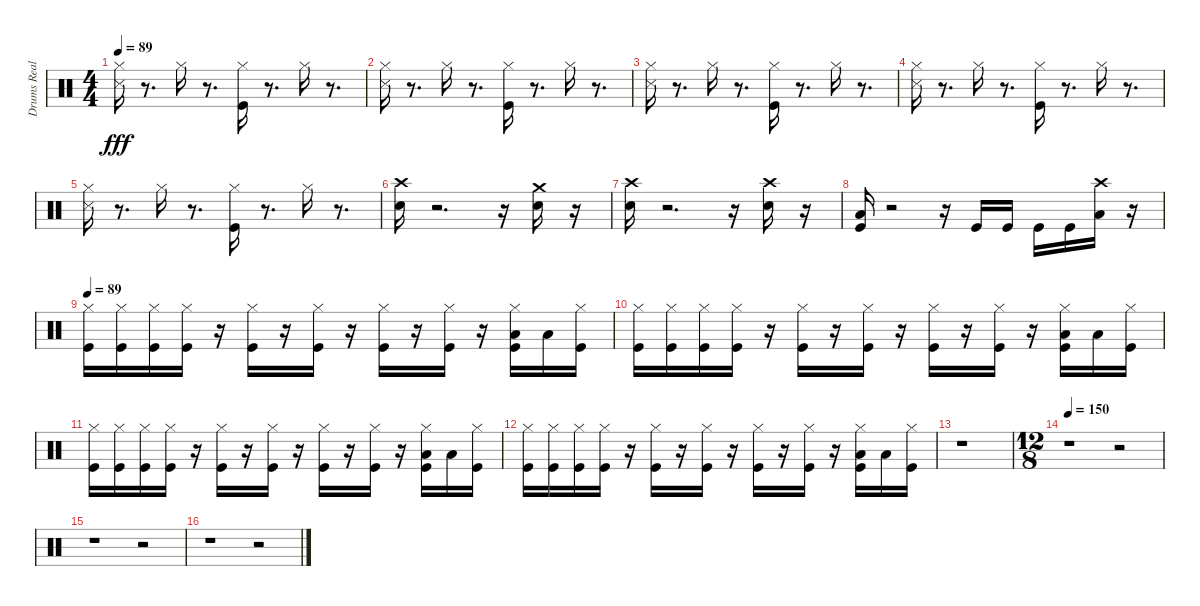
\track ("Drums Real" "Drums Real") {instrument percussion}
\staff {score}
\articulation defaults
\ts (4 4)
\tempo 89
\clef neutral
\ks c
("Snare (side stick) 3" "Hi-Hat (closed)").16{dy fff} r.8{d} "Hi-Hat (closed)".16 r.8{d} ("Kick (hit)" "Hi-Hat (closed)").16 r.8{d} "Hi-Hat (closed)".16 r.8{d} |
("Snare (side stick) 3" "Hi-Hat (closed)").16 r.8{d} "Hi-Hat (closed)".16 r.8{d} ("Kick (hit)" "Hi-Hat (closed)").16 r.8{d} "Hi-Hat (closed)".16 r.8{d} |
("Snare (side stick) 3" "Hi-Hat (closed)").16 r.8{d} "Hi-Hat (closed)".16 r.8{d} ("Kick (hit)" "Hi-Hat (closed)").16 r.8{d} "Hi-Hat (closed)".16 r.8{d} |
("Snare (side stick) 3" "Hi-Hat (closed)").16 r.8{d} "Hi-Hat (closed)".16 r.8{d} ("Kick (hit)" "Hi-Hat (closed)").16 r.8{d} "Hi-Hat (closed)".16 r.8{d} |
("Snare (side stick) 3" "Hi-Hat (closed)").16 r.8{d} "Hi-Hat (closed)".16 r.8{d} ("Kick (hit)" "Hi-Hat (closed)").16 r.8{d} "Hi-Hat (closed)".16 r.8{d} |
("Electric Snare (hit)" "Crash high (hit)").16 r.2{d} r.16 ("Crash medium (hit)" "Electric Snare (hit)").16 r.16 |
("Electric Snare (hit)" "Crash high (hit)").16 r.2{d} r.16 ("Crash high (hit)" "Electric Snare (hit)").16 r.16 |
("Kick (hit)" "Low Tom (hit)").16 r.2 r.16 "Kick (hit)".16 "Kick (hit)".16 "Kick (hit)".16 "Kick (hit)".16 ("Low Tom (hit)" "Crash high (hit)").16 r.16 |
\tempo 89
("Hi-Hat (closed)" "Kick (hit)").16 ("Hi-Hat (closed)" "Kick (hit)").16 ("Hi-Hat (closed)" "Kick (hit)").16 ("Hi-Hat (closed)" "Kick (hit)").16 r.16 ("Kick (hit)" "Hi-Hat (closed)").16 r.16 ("Kick (hit)" "Hi-Hat (closed)").16 r.16 ("Kick (hit)" "Hi-Hat (closed)").16 r.16 ("Kick (hit)" "Hi-Hat (closed)").16 r.16 ("Hi-Hat (closed)" "Kick (hit)" "Low Tom (hit)").16 "Low Tom (hit)".16 ("Kick (hit)" "Hi-Hat (closed)").16 |
("Kick (hit)" "Hi-Hat (closed)").16 ("Kick (hit)" "Hi-Hat (closed)").16 ("Kick (hit)" "Hi-Hat (closed)").16 ("Kick (hit)" "Hi-Hat (closed)").16 r.16 ("Kick (hit)" "Hi-Hat (closed)").16 r.16 ("Kick (hit)" "Hi-Hat (closed)").16 r.16 ("Kick (hit)" "Hi-Hat (closed)").16 r.16 ("Kick (hit)" "Hi-Hat (closed)").16 r.16 ("Kick (hit)" "Hi-Hat (closed)" "Low Tom (hit)").16 "Low Tom (hit)".16 ("Kick (hit)" "Hi-Hat (closed)").16 |
("Hi-Hat (closed)" "Kick (hit)").16 ("Hi-Hat (closed)" "Kick (hit)").16 ("Hi-Hat (closed)" "Kick (hit)").16 ("Hi-Hat (closed)" "Kick (hit)").16 r.16 ("Kick (hit)" "Hi-Hat (closed)").16 r.16 ("Kick (hit)" "Hi-Hat (closed)").16 r.16 ("Kick (hit)" "Hi-Hat (closed)").16 r.16 ("Kick (hit)" "Hi-Hat (closed)").16 r.16 ("Hi-Hat (closed)" "Kick (hit)" "Low Tom (hit)").16 "Low Tom (hit)".16 ("Kick (hit)" "Hi-Hat (closed)").16 |
("Kick (hit)" "Hi-Hat (closed)").16 ("Kick (hit)" "Hi-Hat (closed)").16 ("Kick (hit)" "Hi-Hat (closed)").16 ("Kick (hit)" "Hi-Hat (closed)").16 r.16 ("Kick (hit)" "Hi-Hat (closed)").16 r.16 ("Kick (hit)" "Hi-Hat (closed)").16 r.16 ("Kick (hit)" "Hi-Hat (closed)").16 r.16 ("Kick (hit)" "Hi-Hat (closed)").16 r.16 ("Kick (hit)" "Hi-Hat (closed)" "Low Tom (hit)").16 "Low Tom (hit)".16 ("Kick (hit)" "Hi-Hat (closed)").16 |
r.1 |
\ts (12 8)
\tempo 150
r.1 r.2 |
r.1 r.2 |
r.1 r.2
